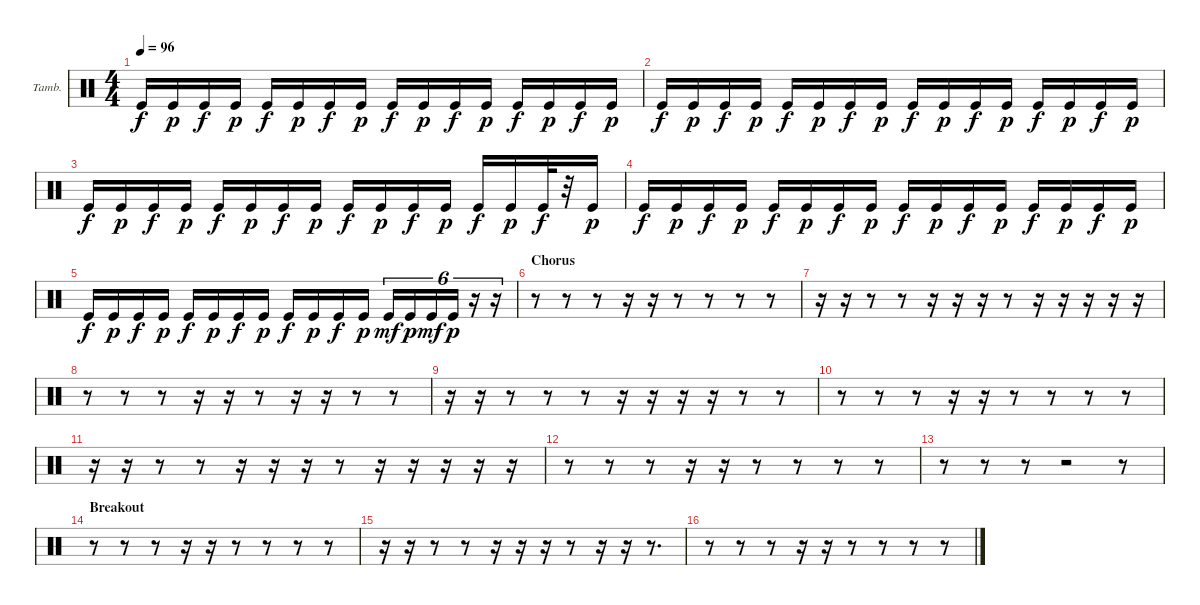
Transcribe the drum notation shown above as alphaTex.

\defaultSystemsLayout 4
\bracketExtendMode nobrackets
\firstSystemTrackNameOrientation horizontal
\otherSystemsTrackNameOrientation horizontal
\track ("Tambourine" "Tamb.") {instrument percussion}
\staff {score}
\articulation defaults
\ts (4 4)
\tempo 96
\clef neutral
\ks c "Kick (hit)".16{dy f} "Kick (hit)".16{dy p} "Kick (hit)".16{dy f} "Kick (hit)".16{dy p} "Kick (hit)".16{dy f} "Kick (hit)".16{dy p} "Kick (hit)".16{dy f} "Kick (hit)".16{dy p} "Kick (hit)".16{dy f} "Kick (hit)".16{dy p} "Kick (hit)".16{dy f} "Kick (hit)".16{dy p} "Kick (hit)".16{dy f} "Kick (hit)".16{dy p} "Kick (hit)".16{dy f} "Kick (hit)".16{dy p}
|
"Kick (hit)".16{dy f} "Kick (hit)".16{dy p} "Kick (hit)".16{dy f} "Kick (hit)".16{dy p} "Kick (hit)".16{dy f} "Kick (hit)".16{dy p} "Kick (hit)".16{dy f} "Kick (hit)".16{dy p} "Kick (hit)".16{dy f} "Kick (hit)".16{dy p} "Kick (hit)".16{dy f} "Kick (hit)".16{dy p} "Kick (hit)".16{dy f} "Kick (hit)".16{dy p} "Kick (hit)".16{dy f} "Kick (hit)".16{dy p} |
"Kick (hit)".16{dy f} "Kick (hit)".16{dy p} "Kick (hit)".16{dy f} "Kick (hit)".16{dy p} "Kick (hit)".16{dy f} "Kick (hit)".16{dy p} "Kick (hit)".16{dy f} "Kick (hit)".16{dy p} "Kick (hit)".16{dy f} "Kick (hit)".16{dy p} "Kick (hit)".16{dy f} "Kick (hit)".16{dy p} "Kick (hit)".16{dy f} "Kick (hit)".16{dy p} "Kick (hit)".32{dy f} r.32 "Kick (hit)".16{dy p} |
"Kick (hit)".16{dy f} "Kick (hit)".16{dy p} "Kick (hit)".16{dy f} "Kick (hit)".16{dy p} "Kick (hit)".16{dy f} "Kick (hit)".16{dy p} "Kick (hit)".16{dy f} "Kick (hit)".16{dy p} "Kick (hit)".16{dy f} "Kick (hit)".16{dy p} "Kick (hit)".16{dy f} "Kick (hit)".16{dy p} "Kick (hit)".16{dy f} "Kick (hit)".16{dy p} "Kick (hit)".16{dy f} "Kick (hit)".16{dy p} |
"Kick (hit)".16{dy f} "Kick (hit)".16{dy p} "Kick (hit)".16{dy f} "Kick (hit)".16{dy p} "Kick (hit)".16{dy f} "Kick (hit)".16{dy p} "Kick (hit)".16{dy f} "Kick (hit)".16{dy p} "Kick (hit)".16{dy f} "Kick (hit)".16{dy p} "Kick (hit)".16{dy f} "Kick (hit)".16{dy p} "Kick (hit)".16{tu (6 4) dy mf} "Kick (hit)".16{tu (6 4) dy p} "Kick (hit)".16{tu (6 4) dy mf} "Kick (hit)".16{tu (6 4) dy p} r.16{tu (6 4)} r.16{tu (6 4)} |
\section ("" "Chorus")
r.8 r.8 r.8 r.16 r.16 r.8 r.8 r.8 r.8 |
r.16 r.16 r.8 r.8 r.16 r.16 r.16 r.8 r.16 r.16 r.16 r.16 r.16 |
r.8 r.8 r.8 r.16 r.16 r.8 r.16 r.16 r.8 r.8 |
r.16 r.16 r.8 r.8 r.8 r.16 r.16 r.16 r.16 r.8 r.8 |
r.8 r.8 r.8 r.16 r.16 r.8 r.8 r.8 r.8 |
r.16 r.16 r.8 r.8 r.16 r.16 r.16 r.8 r.16 r.16 r.16 r.16 r.16 |
r.8 r.8 r.8 r.16 r.16 r.8 r.8 r.8 r.8 |
r.8 r.8 r.8 r.2 r.8 |
\section ("" "Breakout")
r.8 r.8 r.8 r.16 r.16 r.8 r.8 r.8 r.8 |
r.16 r.16 r.8 r.8 r.16 r.16 r.16 r.8 r.16 r.16 r.8{d} |
r.8 r.8 r.8 r.16 r.16 r.8 r.8 r.8 r.8
